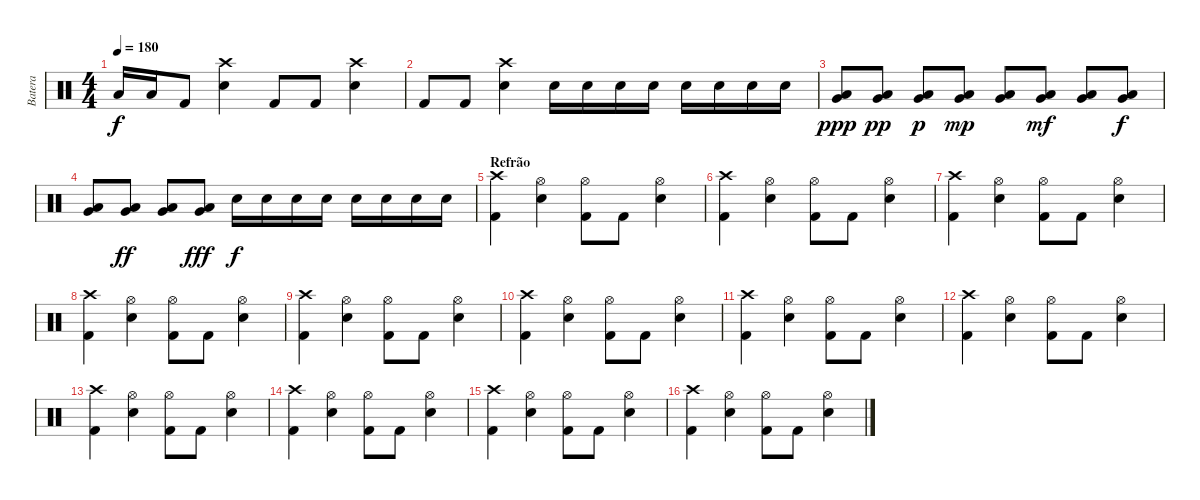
\track ("Batera" "Batera") {instrument percussion}
\staff {score}
\articulation defaults
\ts (4 4)
\tempo 180
\clef neutral
\ks c "Low Tom (hit)".16{dy f} "Low Tom (hit)".16 "Kick (hit) 2".8
("Crash high (hit)" "Snare (hit) 2").4 "Kick (hit) 2".8 "Kick (hit) 2".8 ("Crash high (hit)" "Snare (hit) 2").4 |
"Kick (hit) 2".8 "Kick (hit) 2".8 ("Crash high (hit)" "Snare (hit) 2").4 "Snare (hit) 2".16 "Snare (hit) 2".16 "Snare (hit) 2".16 "Snare (hit) 2".16 "Snare (hit) 2".16 "Snare (hit) 2".16 "Snare (hit) 2".16 "Snare (hit) 2".16 |
("Very Low Tom (hit)" "Low Tom (hit)").8{dy ppp} ("Very Low Tom (hit)" "Low Tom (hit)").8{dy pp} ("Very Low Tom (hit)" "Low Tom (hit)").8{dy p} ("Very Low Tom (hit)" "Low Tom (hit)").8{dy mp} ("Very Low Tom (hit)" "Low Tom (hit)").8 ("Very Low Tom (hit)" "Low Tom (hit)").8{dy mf} ("Very Low Tom (hit)" "Low Tom (hit)").8 ("Very Low Tom (hit)" "Low Tom (hit)").8{dy f} |
("Very Low Tom (hit)" "Low Tom (hit)").8 ("Very Low Tom (hit)" "Low Tom (hit)").8{dy ff} ("Very Low Tom (hit)" "Low Tom (hit)").8 ("Very Low Tom (hit)" "Low Tom (hit)").8{dy fff} "Snare (hit) 2".16{dy f} "Snare (hit) 2".16 "Snare (hit) 2".16 "Snare (hit) 2".16 "Snare (hit) 2".16 "Snare (hit) 2".16 "Snare (hit) 2".16 "Snare (hit) 2".16 |
\section ("" "Refrão")
("Crash high (hit)" "Kick (hit) 2").4 ("Hi-Hat (open)" "Snare (hit) 2").4 ("Hi-Hat (open)" "Kick (hit) 2").8 "Kick (hit) 2".8 ("Hi-Hat (open)" "Snare (hit) 2").4 |
("Crash high (hit)" "Kick (hit) 2").4 ("Hi-Hat (open)" "Snare (hit) 2").4 ("Hi-Hat (open)" "Kick (hit) 2").8 "Kick (hit) 2".8 ("Hi-Hat (open)" "Snare (hit) 2").4 |
("Crash high (hit)" "Kick (hit) 2").4 ("Hi-Hat (open)" "Snare (hit) 2").4 ("Hi-Hat (open)" "Kick (hit) 2").8 "Kick (hit) 2".8 ("Hi-Hat (open)" "Snare (hit) 2").4 |
("Crash high (hit)" "Kick (hit) 2").4 ("Hi-Hat (open)" "Snare (hit) 2").4 ("Hi-Hat (open)" "Kick (hit) 2").8 "Kick (hit) 2".8 ("Hi-Hat (open)" "Snare (hit) 2").4 |
("Crash high (hit)" "Kick (hit) 2").4 ("Hi-Hat (open)" "Snare (hit) 2").4 ("Hi-Hat (open)" "Kick (hit) 2").8 "Kick (hit) 2".8 ("Hi-Hat (open)" "Snare (hit) 2").4 |
("Crash high (hit)" "Kick (hit) 2").4 ("Hi-Hat (open)" "Snare (hit) 2").4 ("Hi-Hat (open)" "Kick (hit) 2").8 "Kick (hit) 2".8 ("Hi-Hat (open)" "Snare (hit) 2").4 |
("Crash high (hit)" "Kick (hit) 2").4 ("Hi-Hat (open)" "Snare (hit) 2").4 ("Hi-Hat (open)" "Kick (hit) 2").8 "Kick (hit) 2".8 ("Hi-Hat (open)" "Snare (hit) 2").4 |
("Crash high (hit)" "Kick (hit) 2").4 ("Hi-Hat (open)" "Snare (hit) 2").4 ("Hi-Hat (open)" "Kick (hit) 2").8 "Kick (hit) 2".8 ("Hi-Hat (open)" "Snare (hit) 2").4 |
("Crash high (hit)" "Kick (hit) 2").4 ("Hi-Hat (open)" "Snare (hit) 2").4 ("Hi-Hat (open)" "Kick (hit) 2").8 "Kick (hit) 2".8 ("Hi-Hat (open)" "Snare (hit) 2").4 |
("Crash high (hit)" "Kick (hit) 2").4 ("Hi-Hat (open)" "Snare (hit) 2").4 ("Hi-Hat (open)" "Kick (hit) 2").8 "Kick (hit) 2".8 ("Hi-Hat (open)" "Snare (hit) 2").4 |
("Crash high (hit)" "Kick (hit) 2").4 ("Hi-Hat (open)" "Snare (hit) 2").4 ("Hi-Hat (open)" "Kick (hit) 2").8 "Kick (hit) 2".8 ("Hi-Hat (open)" "Snare (hit) 2").4 |
("Crash high (hit)" "Kick (hit) 2").4 ("Hi-Hat (open)" "Snare (hit) 2").4 ("Hi-Hat (open)" "Kick (hit) 2").8 "Kick (hit) 2".8 ("Hi-Hat (open)" "Snare (hit) 2").4
